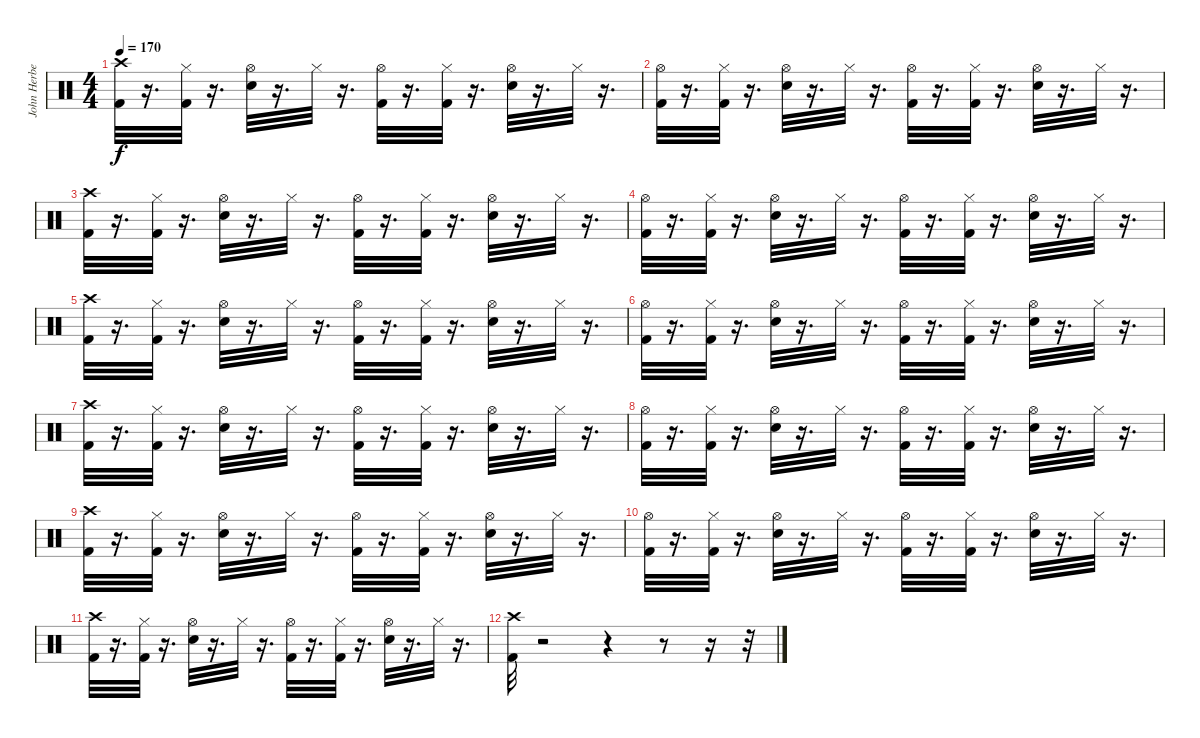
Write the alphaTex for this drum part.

\track ("John Herbert" "John Herbe") {instrument percussion}
\staff {score}
\articulation defaults
\ts (4 4)
\tempo 170
\clef neutral
\ks c
("Crash high (hit)" "Kick (hit) 2").32{dy f} r.16{d} ("Hi-Hat (closed)" "Kick (hit) 2").32 r.16{d} ("Hi-Hat (open)" "Snare (hit) 2").32 r.16{d} "Hi-Hat (closed)".32 r.16{d} ("Hi-Hat (open)" "Kick (hit) 2").32 r.16{d} ("Hi-Hat (closed)" "Kick (hit) 2").32 r.16{d} ("Hi-Hat (open)" "Snare (hit) 2").32 r.16{d} "Hi-Hat (closed)".32 r.16{d} |
("Hi-Hat (open)" "Kick (hit) 2").32 r.16{d} ("Hi-Hat (closed)" "Kick (hit) 2").32 r.16{d} ("Hi-Hat (open)" "Snare (hit) 2").32 r.16{d} "Hi-Hat (closed)".32 r.16{d} ("Hi-Hat (open)" "Kick (hit) 2").32 r.16{d} ("Hi-Hat (closed)" "Kick (hit) 2").32 r.16{d} ("Hi-Hat (open)" "Snare (hit) 2").32 r.16{d} "Hi-Hat (closed)".32 r.16{d} |
("Crash high (hit)" "Kick (hit) 2").32 r.16{d} ("Hi-Hat (closed)" "Kick (hit) 2").32 r.16{d} ("Hi-Hat (open)" "Snare (hit) 2").32 r.16{d} "Hi-Hat (closed)".32 r.16{d} ("Hi-Hat (open)" "Kick (hit) 2").32 r.16{d} ("Hi-Hat (closed)" "Kick (hit) 2").32 r.16{d} ("Hi-Hat (open)" "Snare (hit) 2").32 r.16{d} "Hi-Hat (closed)".32 r.16{d} |
("Hi-Hat (open)" "Kick (hit) 2").32 r.16{d} ("Hi-Hat (closed)" "Kick (hit) 2").32 r.16{d} ("Hi-Hat (open)" "Snare (hit) 2").32 r.16{d} "Hi-Hat (closed)".32 r.16{d} ("Hi-Hat (open)" "Kick (hit) 2").32 r.16{d} ("Hi-Hat (closed)" "Kick (hit) 2").32 r.16{d} ("Hi-Hat (open)" "Snare (hit) 2").32 r.16{d} "Hi-Hat (closed)".32 r.16{d} |
("Crash high (hit)" "Kick (hit) 2").32 r.16{d} ("Hi-Hat (closed)" "Kick (hit) 2").32 r.16{d} ("Hi-Hat (open)" "Snare (hit) 2").32 r.16{d} "Hi-Hat (closed)".32 r.16{d} ("Hi-Hat (open)" "Kick (hit) 2").32 r.16{d} ("Hi-Hat (closed)" "Kick (hit) 2").32 r.16{d} ("Hi-Hat (open)" "Snare (hit) 2").32 r.16{d} "Hi-Hat (closed)".32 r.16{d} |
("Hi-Hat (open)" "Kick (hit) 2").32 r.16{d} ("Hi-Hat (closed)" "Kick (hit) 2").32 r.16{d} ("Hi-Hat (open)" "Snare (hit) 2").32 r.16{d} "Hi-Hat (closed)".32 r.16{d} ("Hi-Hat (open)" "Kick (hit) 2").32 r.16{d} ("Hi-Hat (closed)" "Kick (hit) 2").32 r.16{d} ("Hi-Hat (open)" "Snare (hit) 2").32 r.16{d} "Hi-Hat (closed)".32 r.16{d} |
("Crash high (hit)" "Kick (hit) 2").32 r.16{d} ("Hi-Hat (closed)" "Kick (hit) 2").32 r.16{d} ("Hi-Hat (open)" "Snare (hit) 2").32 r.16{d} "Hi-Hat (closed)".32 r.16{d} ("Hi-Hat (open)" "Kick (hit) 2").32 r.16{d} ("Hi-Hat (closed)" "Kick (hit) 2").32 r.16{d} ("Hi-Hat (open)" "Snare (hit) 2").32 r.16{d} "Hi-Hat (closed)".32 r.16{d} |
("Hi-Hat (open)" "Kick (hit) 2").32 r.16{d} ("Hi-Hat (closed)" "Kick (hit) 2").32 r.16{d} ("Hi-Hat (open)" "Snare (hit) 2").32 r.16{d} "Hi-Hat (closed)".32 r.16{d} ("Hi-Hat (open)" "Kick (hit) 2").32 r.16{d} ("Hi-Hat (closed)" "Kick (hit) 2").32 r.16{d} ("Hi-Hat (open)" "Snare (hit) 2").32 r.16{d} "Hi-Hat (closed)".32 r.16{d} |
("Crash high (hit)" "Kick (hit) 2").32 r.16{d} ("Hi-Hat (closed)" "Kick (hit) 2").32 r.16{d} ("Hi-Hat (open)" "Snare (hit) 2").32 r.16{d} "Hi-Hat (closed)".32 r.16{d} ("Hi-Hat (open)" "Kick (hit) 2").32 r.16{d} ("Hi-Hat (closed)" "Kick (hit) 2").32 r.16{d} ("Hi-Hat (open)" "Snare (hit) 2").32 r.16{d} "Hi-Hat (closed)".32 r.16{d} |
("Hi-Hat (open)" "Kick (hit) 2").32 r.16{d} ("Hi-Hat (closed)" "Kick (hit) 2").32 r.16{d} ("Hi-Hat (open)" "Snare (hit) 2").32 r.16{d} "Hi-Hat (closed)".32 r.16{d} ("Hi-Hat (open)" "Kick (hit) 2").32 r.16{d} ("Hi-Hat (closed)" "Kick (hit) 2").32 r.16{d} ("Hi-Hat (open)" "Snare (hit) 2").32 r.16{d} "Hi-Hat (closed)".32 r.16{d} |
("Crash high (hit)" "Kick (hit) 2").32 r.16{d} ("Hi-Hat (closed)" "Kick (hit) 2").32 r.16{d} ("Hi-Hat (open)" "Snare (hit) 2").32 r.16{d} "Hi-Hat (closed)".32 r.16{d} ("Hi-Hat (open)" "Kick (hit) 2").32 r.16{d} ("Hi-Hat (closed)" "Kick (hit) 2").32 r.16{d} ("Hi-Hat (open)" "Snare (hit) 2").32 r.16{d} "Hi-Hat (closed)".32 r.16{d} |
("Kick (hit) 2" "Crash high (hit)").32 r.2 r.4 r.8 r.16 r.32
